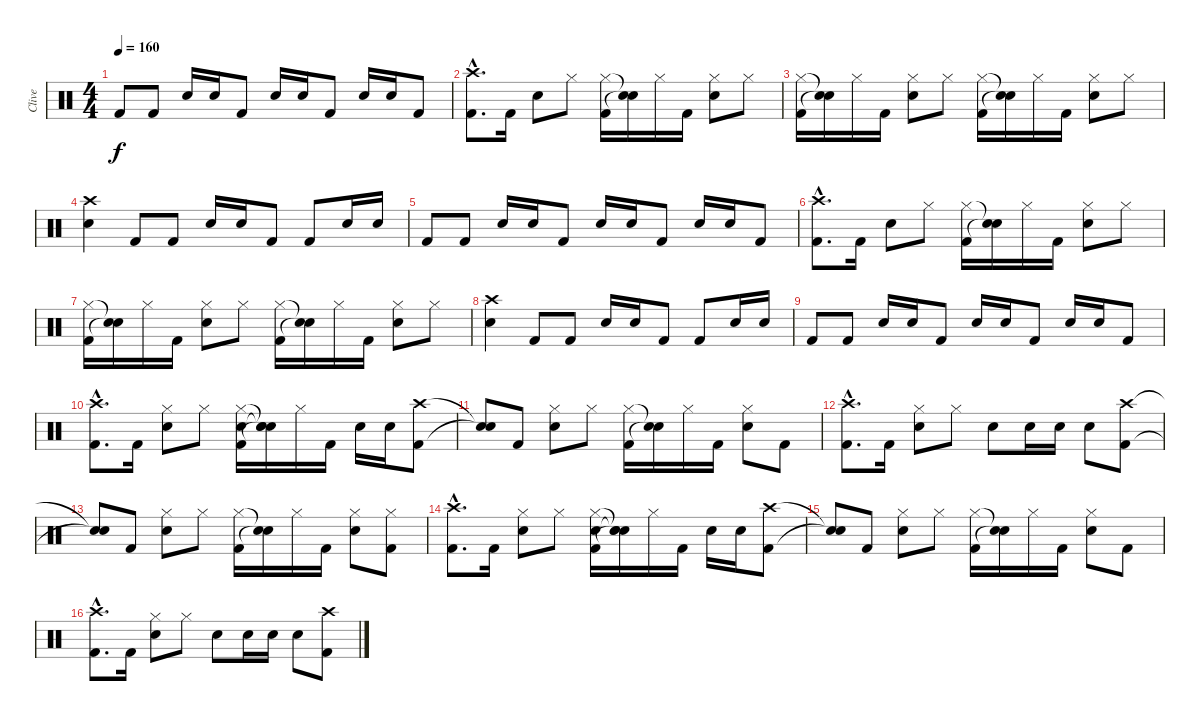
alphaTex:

\track ("Clive" "Clive") {instrument percussion}
\staff {score}
\articulation defaults
\ts (4 4)
\tempo 160
\clef neutral
\ks c "Kick (hit) 2".8{dy f} "Kick (hit) 2".8 "Snare (hit) 2".16 "Snare (hit) 2".16 "Kick (hit) 2".8 "Snare (hit) 2".16 "Snare (hit) 2".16 "Kick (hit) 2".8 "Snare (hit) 2".16 "Snare (hit) 2".16 "Kick (hit) 2".8
|
("Crash high (hit)"{hac} "Kick (hit) 2"{hac}).8{d} "Kick (hit) 2".16 "Snare (hit) 2".8 "Hi-Hat (closed)".8 ("Hi-Hat (closed)" "Kick (hit) 2").16 ("Snare (hit)"{t} "Snare (hit)"{t}).16 "Hi-Hat (closed)".16 "Kick (hit) 2".16 ("Hi-Hat (closed)" "Snare (hit) 2").8 "Hi-Hat (closed)".8 |
("Hi-Hat (closed)" "Kick (hit) 2").16 ("Snare (hit)"{t} "Snare (hit)"{t}).16 "Hi-Hat (closed)".16 "Kick (hit) 2".16 ("Hi-Hat (closed)" "Snare (hit) 2").8 "Hi-Hat (closed)".8 ("Hi-Hat (closed)" "Kick (hit) 2").16 ("Snare (hit)"{t} "Snare (hit)"{t}).16 "Hi-Hat (closed)".16 "Kick (hit) 2".16 ("Hi-Hat (closed)" "Snare (hit) 2").8 "Hi-Hat (closed)".8 |
("Crash high (hit)" "Snare (hit) 2").4 "Kick (hit) 2".8 "Kick (hit) 2".8 "Snare (hit) 2".16 "Snare (hit) 2".16 "Kick (hit) 2".8 "Kick (hit) 2".8 "Snare (hit) 2".16 "Snare (hit) 2".16 |
"Kick (hit) 2".8 "Kick (hit) 2".8 "Snare (hit) 2".16 "Snare (hit) 2".16 "Kick (hit) 2".8 "Snare (hit) 2".16 "Snare (hit) 2".16 "Kick (hit) 2".8 "Snare (hit) 2".16 "Snare (hit) 2".16 "Kick (hit) 2".8 |
("Crash high (hit)"{hac} "Kick (hit) 2"{hac}).8{d} "Kick (hit) 2".16 "Snare (hit) 2".8 "Hi-Hat (closed)".8 ("Hi-Hat (closed)" "Kick (hit) 2").16 ("Snare (hit)"{t} "Snare (hit)"{t}).16 "Hi-Hat (closed)".16 "Kick (hit) 2".16 ("Hi-Hat (closed)" "Snare (hit) 2").8 "Hi-Hat (closed)".8 |
("Hi-Hat (closed)" "Kick (hit) 2").16 ("Snare (hit)"{t} "Snare (hit)"{t}).16 "Hi-Hat (closed)".16 "Kick (hit) 2".16 ("Hi-Hat (closed)" "Snare (hit) 2").8 "Hi-Hat (closed)".8 ("Hi-Hat (closed)" "Kick (hit) 2").16 ("Snare (hit)"{t} "Snare (hit)"{t}).16 "Hi-Hat (closed)".16 "Kick (hit) 2".16 ("Hi-Hat (closed)" "Snare (hit) 2").8 "Hi-Hat (closed)".8 |
("Crash high (hit)" "Snare (hit) 2").4 "Kick (hit) 2".8 "Kick (hit) 2".8 "Snare (hit) 2".16 "Snare (hit) 2".16 "Kick (hit) 2".8 "Kick (hit) 2".8 "Snare (hit) 2".16 "Snare (hit) 2".16 |
"Kick (hit) 2".8 "Kick (hit) 2".8 "Snare (hit) 2".16 "Snare (hit) 2".16 "Kick (hit) 2".8 "Snare (hit) 2".16 "Snare (hit) 2".16 "Kick (hit) 2".8 "Snare (hit) 2".16 "Snare (hit) 2".16 "Kick (hit) 2".8 |
("Crash high (hit)"{hac} "Kick (hit) 2"{hac}).8{d} "Kick (hit) 2".16 ("Hi-Hat (closed)" "Snare (hit) 2").8 "Hi-Hat (closed)".8 ("Hi-Hat (closed)" "Snare (hit) 2" "Kick (hit) 2").16 ("Snare (hit)"{t} "Snare (hit)"{t} "Snare (hit)"{t}).16 "Hi-Hat (closed)".16 "Kick (hit) 2".16 "Snare (hit) 2".16 "Snare (hit) 2".16 ("Crash high (hit)" "Kick (hit) 2").8 |
("Snare (hit)"{t} "Snare (hit)"{t}).8 "Kick (hit) 2".8 ("Hi-Hat (closed)" "Snare (hit) 2").8 "Hi-Hat (closed)".8 ("Hi-Hat (closed)" "Kick (hit) 2").16 ("Snare (hit)"{t} "Snare (hit)"{t}).16 "Hi-Hat (closed)".16 "Kick (hit) 2".16 ("Hi-Hat (closed)" "Snare (hit) 2").8 "Kick (hit) 2".8 |
("Crash high (hit)"{hac} "Kick (hit) 2"{hac}).8{d} "Kick (hit) 2".16 ("Hi-Hat (closed)" "Snare (hit) 2").8 "Hi-Hat (closed)".8 "Snare (hit) 2".8 "Snare (hit) 2".16 "Snare (hit) 2".16 "Snare (hit) 2".8 ("Crash high (hit)" "Kick (hit) 2").8 |
("Snare (hit)"{t} "Snare (hit)"{t}).8 "Kick (hit) 2".8 ("Hi-Hat (closed)" "Snare (hit) 2").8 "Hi-Hat (closed)".8 ("Hi-Hat (closed)" "Kick (hit) 2").16 ("Snare (hit)"{t} "Snare (hit)"{t}).16 "Hi-Hat (closed)".16 "Kick (hit) 2".16 ("Hi-Hat (closed)" "Snare (hit) 2").8 ("Hi-Hat (closed)" "Kick (hit) 2").8 |
("Crash high (hit)"{hac} "Kick (hit) 2"{hac}).8{d} "Kick (hit) 2".16 ("Hi-Hat (closed)" "Snare (hit) 2").8 "Hi-Hat (closed)".8 ("Hi-Hat (closed)" "Snare (hit) 2" "Kick (hit) 2").16 ("Snare (hit)"{t} "Snare (hit)"{t} "Snare (hit)"{t}).16 "Hi-Hat (closed)".16 "Kick (hit) 2".16 "Snare (hit) 2".16 "Snare (hit) 2".16 ("Crash high (hit)" "Kick (hit) 2").8 |
("Snare (hit)"{t} "Snare (hit)"{t}).8 "Kick (hit) 2".8 ("Hi-Hat (closed)" "Snare (hit) 2").8 "Hi-Hat (closed)".8 ("Hi-Hat (closed)" "Kick (hit) 2").16 ("Snare (hit)"{t} "Snare (hit)"{t}).16 "Hi-Hat (closed)".16 "Kick (hit) 2".16 ("Hi-Hat (closed)" "Snare (hit) 2").8 "Kick (hit) 2".8 |
("Crash high (hit)"{hac} "Kick (hit) 2"{hac}).8{d} "Kick (hit) 2".16 ("Hi-Hat (closed)" "Snare (hit) 2").8 "Hi-Hat (closed)".8 "Snare (hit) 2".8 "Snare (hit) 2".16 "Snare (hit) 2".16 "Snare (hit) 2".8 ("Crash high (hit)" "Kick (hit) 2").8
